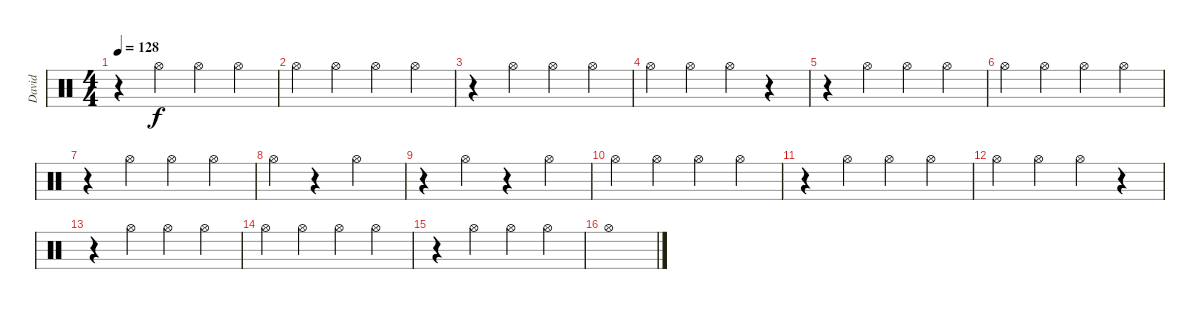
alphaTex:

\track ("David" "David") {instrument percussion}
\staff {score}
\articulation defaults
\ts (4 4)
\tempo 128
\clef neutral
\ks c
r.4{dy f} "Hi-Hat (open)".4 "Hi-Hat (open)".4 "Hi-Hat (open)".4 |
"Hi-Hat (open)".4 "Hi-Hat (open)".4 "Hi-Hat (open)".4 "Hi-Hat (open)".4 |
r.4 "Hi-Hat (open)".4 "Hi-Hat (open)".4 "Hi-Hat (open)".4 |
"Hi-Hat (open)".4 "Hi-Hat (open)".4 "Hi-Hat (open)".4 r.4 |
r.4 "Hi-Hat (open)".4 "Hi-Hat (open)".4 "Hi-Hat (open)".4 |
"Hi-Hat (open)".4 "Hi-Hat (open)".4 "Hi-Hat (open)".4 "Hi-Hat (open)".4 |
r.4 "Hi-Hat (open)".4 "Hi-Hat (open)".4 "Hi-Hat (open)".4 |
"Hi-Hat (open)".4 r.4 "Hi-Hat (open)".2 |
r.4 "Hi-Hat (open)".4 r.4 "Hi-Hat (open)".4 |
"Hi-Hat (open)".4 "Hi-Hat (open)".4 "Hi-Hat (open)".4 "Hi-Hat (open)".4 |
r.4 "Hi-Hat (open)".4 "Hi-Hat (open)".4 "Hi-Hat (open)".4 |
"Hi-Hat (open)".4 "Hi-Hat (open)".4 "Hi-Hat (open)".4 r.4 |
r.4 "Hi-Hat (open)".4 "Hi-Hat (open)".4 "Hi-Hat (open)".4 |
"Hi-Hat (open)".4 "Hi-Hat (open)".4 "Hi-Hat (open)".4 "Hi-Hat (open)".4 |
r.4 "Hi-Hat (open)".4 "Hi-Hat (open)".4 "Hi-Hat (open)".4 |
"Hi-Hat (open)".1
